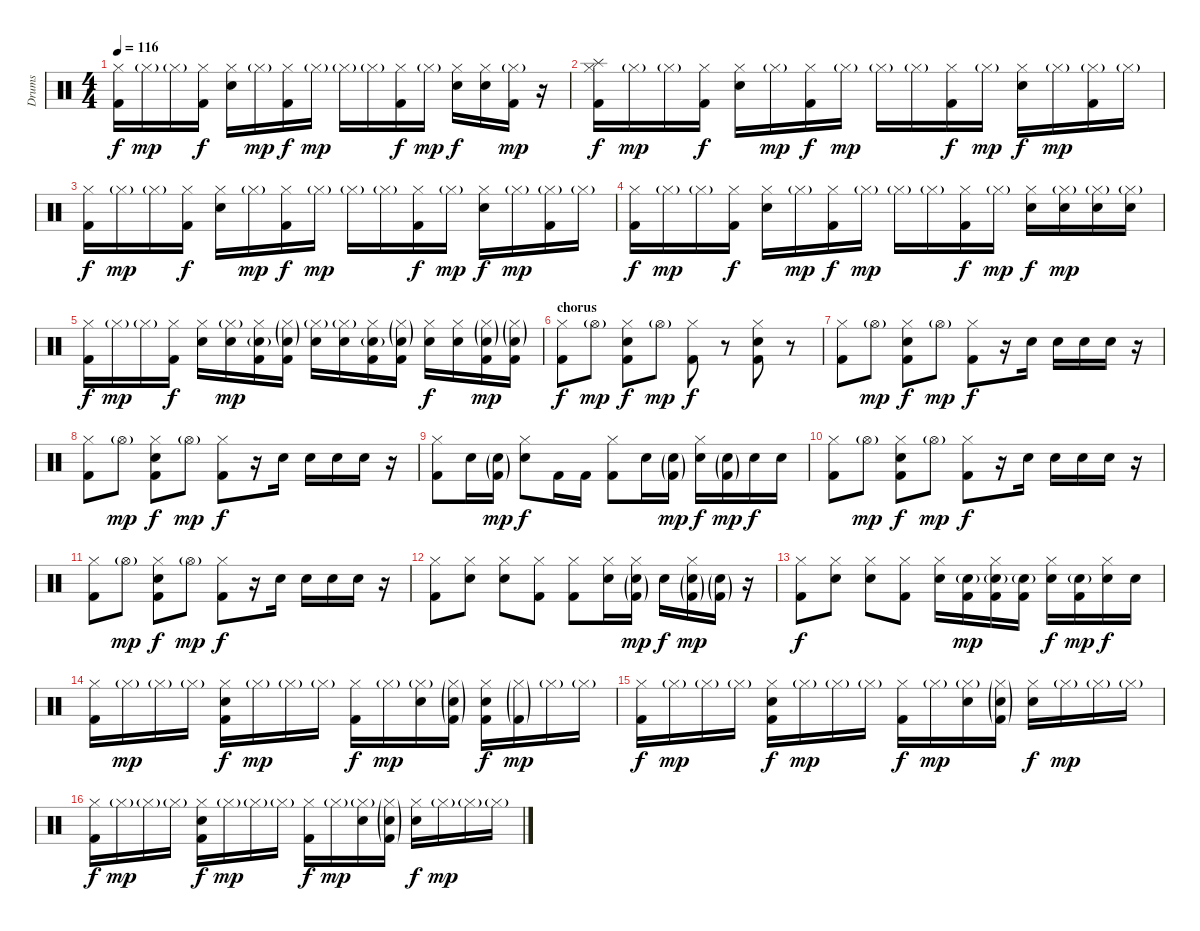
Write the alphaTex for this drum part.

\track ("Drums" "Drums") {instrument percussion}
\staff {score}
\articulation defaults
\ts (4 4)
\tempo 116
\clef neutral
\ks c
("Hi-Hat (closed)" "Kick (hit) 2").16{dy f} "Hi-Hat (closed)"{g}.16{dy mp} "Hi-Hat (closed)"{g}.16 ("Hi-Hat (closed)" "Kick (hit) 2").16{dy f} ("Hi-Hat (closed)" "Snare (hit) 2").16 "Hi-Hat (closed)"{g}.16{dy mp} ("Hi-Hat (closed)" "Kick (hit) 2").16{dy f} "Hi-Hat (closed)"{g}.16{dy mp} "Hi-Hat (closed)"{g}.16 "Hi-Hat (closed)"{g}.16 ("Hi-Hat (closed)" "Kick (hit) 2").16{dy f} "Hi-Hat (closed)"{g}.16{dy mp} ("Hi-Hat (closed)" "Snare (hit) 2").16{dy f} ("Hi-Hat (closed)" "Snare (hit) 2").16 ("Hi-Hat (closed)"{g} "Kick (hit) 2").16{dy mp} r.16 |
("Splash (hit)" "Hi-Hat (closed)" "Kick (hit) 2").16{dy f} "Hi-Hat (closed)"{g}.16{dy mp} "Hi-Hat (closed)"{g}.16 ("Hi-Hat (closed)" "Kick (hit) 2").16{dy f} ("Hi-Hat (closed)" "Snare (hit) 2").16 "Hi-Hat (closed)"{g}.16{dy mp} ("Hi-Hat (closed)" "Kick (hit) 2").16{dy f} "Hi-Hat (closed)"{g}.16{dy mp} "Hi-Hat (closed)"{g}.16 "Hi-Hat (closed)"{g}.16 ("Hi-Hat (closed)" "Kick (hit) 2").16{dy f} "Hi-Hat (closed)"{g}.16{dy mp} ("Hi-Hat (closed)" "Snare (hit) 2").16{dy f} "Hi-Hat (closed)"{g}.16{dy mp} ("Hi-Hat (closed)"{g} "Kick (hit) 2").16 "Hi-Hat (closed)"{g}.16 |
("Hi-Hat (closed)" "Kick (hit) 2").16{dy f} "Hi-Hat (closed)"{g}.16{dy mp} "Hi-Hat (closed)"{g}.16 ("Hi-Hat (closed)" "Kick (hit) 2").16{dy f} ("Hi-Hat (closed)" "Snare (hit) 2").16 "Hi-Hat (closed)"{g}.16{dy mp} ("Hi-Hat (closed)" "Kick (hit) 2").16{dy f} "Hi-Hat (closed)"{g}.16{dy mp} "Hi-Hat (closed)"{g}.16 "Hi-Hat (closed)"{g}.16 ("Hi-Hat (closed)" "Kick (hit) 2").16{dy f} "Hi-Hat (closed)"{g}.16{dy mp} ("Hi-Hat (closed)" "Snare (hit) 2").16{dy f} "Hi-Hat (closed)"{g}.16{dy mp} ("Hi-Hat (closed)"{g} "Kick (hit) 2").16 "Hi-Hat (closed)"{g}.16 |
("Hi-Hat (closed)" "Kick (hit) 2").16{dy f} "Hi-Hat (closed)"{g}.16{dy mp} "Hi-Hat (closed)"{g}.16 ("Hi-Hat (closed)" "Kick (hit) 2").16{dy f} ("Hi-Hat (closed)" "Snare (hit) 2").16 "Hi-Hat (closed)"{g}.16{dy mp} ("Hi-Hat (closed)" "Kick (hit) 2").16{dy f} "Hi-Hat (closed)"{g}.16{dy mp} "Hi-Hat (closed)"{g}.16 "Hi-Hat (closed)"{g}.16 ("Hi-Hat (closed)" "Kick (hit) 2").16{dy f} "Hi-Hat (closed)"{g}.16{dy mp} ("Hi-Hat (closed)" "Snare (hit) 2").16{dy f} ("Hi-Hat (closed)"{g} "Snare (hit) 2").16{dy mp} ("Hi-Hat (closed)"{g} "Snare (hit) 2").16 ("Hi-Hat (closed)"{g} "Snare (hit) 2").16 |
("Hi-Hat (closed)" "Kick (hit) 2").16{dy f} "Hi-Hat (closed)"{g}.16{dy mp} "Hi-Hat (closed)"{g}.16 ("Hi-Hat (closed)" "Kick (hit) 2").16{dy f} ("Hi-Hat (closed)" "Snare (hit) 2").16 ("Hi-Hat (closed)"{g} "Snare (hit) 2").16{dy mp} ("Hi-Hat (closed)" "Snare (hit) 2"{g} "Kick (hit) 2").16 ("Hi-Hat (closed)"{g} "Snare (hit) 2"{g} "Kick (hit) 2").16 ("Hi-Hat (closed)"{g} "Snare (hit) 2").16 ("Hi-Hat (closed)"{g} "Snare (hit) 2").16 ("Hi-Hat (closed)" "Snare (hit) 2"{g} "Kick (hit) 2").16 ("Hi-Hat (closed)"{g} "Snare (hit) 2"{g} "Kick (hit) 2").16 ("Hi-Hat (closed)" "Snare (hit) 2").16{dy f} ("Hi-Hat (closed)" "Snare (hit) 2").16 ("Hi-Hat (closed)"{g} "Snare (hit) 2"{g} "Kick (hit) 2").16{dy mp} ("Hi-Hat (closed)"{g} "Snare (hit) 2"{g} "Kick (hit) 2").16 |
\section ("" "chorus")
("Hi-Hat (closed)" "Kick (hit) 2").8{dy f} "Hi-Hat (open)"{g}.8{dy mp} ("Hi-Hat (closed)" "Snare (hit) 2" "Kick (hit) 2").8{dy f} "Hi-Hat (open)"{g}.8{dy mp} ("Hi-Hat (closed)" "Kick (hit) 2").8{dy f} r.8 ("Hi-Hat (closed)" "Snare (hit) 2" "Kick (hit) 2").8 r.8 |
("Hi-Hat (closed)" "Kick (hit) 2").8 "Hi-Hat (open)"{g}.8{dy mp} ("Hi-Hat (closed)" "Snare (hit) 2" "Kick (hit) 2").8{dy f} "Hi-Hat (open)"{g}.8{dy mp} ("Hi-Hat (closed)" "Kick (hit) 2").8{dy f} r.16 "Snare (hit) 2".16 "Snare (hit) 2".16 "Snare (hit) 2".16 "Snare (hit) 2".16 r.16 |
("Hi-Hat (closed)" "Kick (hit) 2").8 "Hi-Hat (open)"{g}.8{dy mp} ("Hi-Hat (closed)" "Snare (hit) 2" "Kick (hit) 2").8{dy f} "Hi-Hat (open)"{g}.8{dy mp} ("Hi-Hat (closed)" "Kick (hit) 2").8{dy f} r.16 "Snare (hit) 2".16 "Snare (hit) 2".16 "Snare (hit) 2".16 "Snare (hit) 2".16 r.16 |
("Hi-Hat (closed)" "Kick (hit) 2").8 "Snare (hit) 2".16 ("Snare (hit) 2"{g} "Kick (hit) 2"{g}).16{dy mp} ("Hi-Hat (closed)" "Snare (hit) 2").8{dy f} "Kick (hit) 2".16 "Kick (hit) 2".16 ("Hi-Hat (closed)" "Kick (hit) 2").8 "Snare (hit) 2".16 ("Snare (hit) 2"{g} "Kick (hit) 2"{g}).16{dy mp} ("Hi-Hat (closed)" "Snare (hit) 2").16{dy f} ("Snare (hit) 2"{g} "Kick (hit) 2"{g}).16{dy mp} "Snare (hit) 2".16{dy f} "Snare (hit) 2".16 |
("Hi-Hat (closed)" "Kick (hit) 2").8 "Hi-Hat (open)"{g}.8{dy mp} ("Hi-Hat (closed)" "Snare (hit) 2" "Kick (hit) 2").8{dy f} "Hi-Hat (open)"{g}.8{dy mp} ("Hi-Hat (closed)" "Kick (hit) 2").8{dy f} r.16 "Snare (hit) 2".16 "Snare (hit) 2".16 "Snare (hit) 2".16 "Snare (hit) 2".16 r.16 |
("Hi-Hat (closed)" "Kick (hit) 2").8 "Hi-Hat (open)"{g}.8{dy mp} ("Hi-Hat (closed)" "Snare (hit) 2" "Kick (hit) 2").8{dy f} "Hi-Hat (open)"{g}.8{dy mp} ("Hi-Hat (closed)" "Kick (hit) 2").8{dy f} r.16 "Snare (hit) 2".16 "Snare (hit) 2".16 "Snare (hit) 2".16 "Snare (hit) 2".16 r.16 |
("Hi-Hat (closed)" "Kick (hit) 2").8 ("Hi-Hat (closed)" "Snare (hit) 2").8 ("Hi-Hat (closed)" "Snare (hit) 2").8 ("Hi-Hat (closed)" "Kick (hit) 2").8 ("Hi-Hat (closed)" "Kick (hit) 2").8 ("Hi-Hat (closed)" "Snare (hit) 2").16 ("Hi-Hat (closed)" "Snare (hit) 2"{g} "Kick (hit) 2"{g}).16{dy mp} "Snare (hit) 2".16{dy f} ("Hi-Hat (closed)" "Snare (hit) 2"{g} "Kick (hit) 2"{g}).16{dy mp} ("Snare (hit) 2"{g} "Kick (hit) 2"{g}).16 r.16 |
("Hi-Hat (closed)" "Kick (hit) 2").8{dy f} ("Hi-Hat (closed)" "Snare (hit) 2").8 ("Hi-Hat (closed)" "Snare (hit) 2").8 ("Hi-Hat (closed)" "Kick (hit) 2").8 ("Hi-Hat (closed)" "Snare (hit) 2").16 ("Snare (hit) 2"{g} "Kick (hit) 2").16{dy mp} ("Hi-Hat (closed)" "Snare (hit) 2"{g} "Kick (hit) 2").16 ("Snare (hit) 2"{g} "Kick (hit) 2").16 ("Hi-Hat (closed)" "Snare (hit) 2").16{dy f} ("Snare (hit) 2"{g} "Kick (hit) 2").16{dy mp} ("Hi-Hat (closed)" "Snare (hit) 2").16{dy f} "Snare (hit) 2".16 |
("Hi-Hat (closed)" "Kick (hit) 2").16 "Hi-Hat (closed)"{g}.16{dy mp} "Hi-Hat (closed)"{g}.16 "Hi-Hat (closed)"{g}.16 ("Hi-Hat (closed)" "Snare (hit) 2" "Kick (hit) 2").16{dy f} "Hi-Hat (closed)"{g}.16{dy mp} "Hi-Hat (closed)"{g}.16 "Hi-Hat (closed)"{g}.16 ("Hi-Hat (closed)" "Kick (hit) 2").16{dy f} "Hi-Hat (closed)"{g}.16{dy mp} ("Hi-Hat (closed)"{g} "Snare (hit) 2").16 ("Hi-Hat (closed)"{g} "Snare (hit) 2"{g} "Kick (hit) 2"{g}).16 ("Hi-Hat (closed)" "Snare (hit) 2" "Kick (hit) 2").16{dy f} ("Hi-Hat (closed)"{g} "Kick (hit) 2"{g}).16{dy mp} "Hi-Hat (closed)"{g}.16 "Hi-Hat (closed)"{g}.16 |
("Hi-Hat (closed)" "Kick (hit) 2").16{dy f} "Hi-Hat (closed)"{g}.16{dy mp} "Hi-Hat (closed)"{g}.16 "Hi-Hat (closed)"{g}.16 ("Hi-Hat (closed)" "Snare (hit) 2" "Kick (hit) 2").16{dy f} "Hi-Hat (closed)"{g}.16{dy mp} "Hi-Hat (closed)"{g}.16 "Hi-Hat (closed)"{g}.16 ("Hi-Hat (closed)" "Kick (hit) 2").16{dy f} "Hi-Hat (closed)"{g}.16{dy mp} ("Hi-Hat (closed)"{g} "Snare (hit) 2").16 ("Hi-Hat (closed)"{g} "Snare (hit) 2"{g} "Kick (hit) 2"{g}).16 ("Hi-Hat (closed)" "Snare (hit) 2").16{dy f} "Hi-Hat (closed)"{g}.16{dy mp} "Hi-Hat (closed)"{g}.16 "Hi-Hat (closed)"{g}.16 |
("Hi-Hat (closed)" "Kick (hit) 2").16{dy f} "Hi-Hat (closed)"{g}.16{dy mp} "Hi-Hat (closed)"{g}.16 "Hi-Hat (closed)"{g}.16 ("Hi-Hat (closed)" "Snare (hit) 2" "Kick (hit) 2").16{dy f} "Hi-Hat (closed)"{g}.16{dy mp} "Hi-Hat (closed)"{g}.16 "Hi-Hat (closed)"{g}.16 ("Hi-Hat (closed)" "Kick (hit) 2").16{dy f} "Hi-Hat (closed)"{g}.16{dy mp} ("Hi-Hat (closed)"{g} "Snare (hit) 2").16 ("Hi-Hat (closed)"{g} "Snare (hit) 2"{g} "Kick (hit) 2"{g}).16 ("Hi-Hat (closed)" "Snare (hit) 2").16{dy f} "Hi-Hat (closed)"{g}.16{dy mp} "Hi-Hat (closed)"{g}.16 "Hi-Hat (closed)"{g}.16
